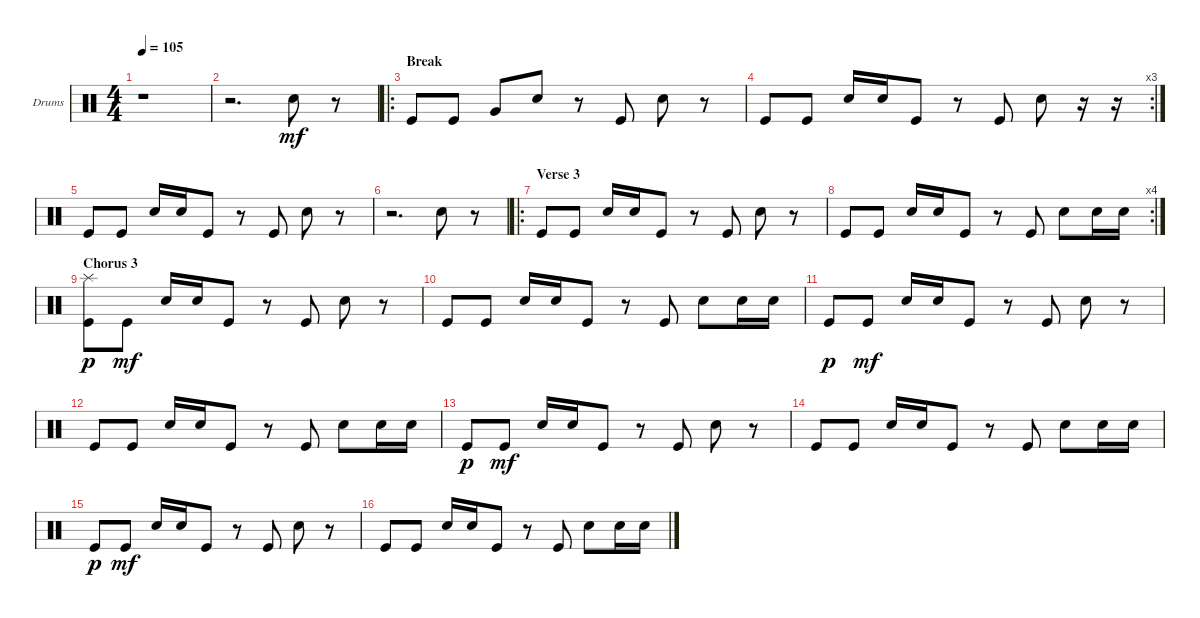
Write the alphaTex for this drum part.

\defaultSystemsLayout 4
\bracketExtendMode groupsimilarinstruments
\firstSystemTrackNameOrientation horizontal
\otherSystemsTrackNameOrientation horizontal
\chordDiagramsInScore
\track ("Drumkit" "Drums") {instrument percussion}
\staff {score}
\articulation defaults
\ts (4 4)
\tempo 105
\clef neutral
\ks c
r.1{dy mf} |
r.2{d} "Snare (hit) 2".8 r.8 |
\ro
\section ("" "Break")
"Kick (hit)".8 "Kick (hit)".8 "Very Low Tom (hit)".8 "Snare (hit) 2".8 r.8 "Kick (hit)".8 "Snare (hit) 2".8 r.8 |
\rc 3 "Kick (hit)".8 "Kick (hit)".8 "Snare (hit) 2".16 "Snare (hit) 2".16 "Kick (hit)".8
r.8 "Kick (hit)".8 "Snare (hit) 2".8 r.16 r.16 |
"Kick (hit)".8 "Kick (hit)".8 "Snare (hit) 2".16 "Snare (hit) 2".16 "Kick (hit)".8 r.8 "Kick (hit)".8 "Snare (hit) 2".8 r.8 |
r.2{d} "Snare (hit) 2".8 r.8 |
\ro
\section ("" "Verse 3")
"Kick (hit)".8 "Kick (hit)".8 "Snare (hit) 2".16 "Snare (hit) 2".16 "Kick (hit)".8 r.8 "Kick (hit)".8 "Snare (hit) 2".8 r.8 |
\rc 4 "Kick (hit)".8 "Kick (hit)".8 "Snare (hit) 2".16 "Snare (hit) 2".16 "Kick (hit)".8
r.8 "Kick (hit)".8 "Snare (hit) 2".8 "Snare (hit) 2".16 "Snare (hit) 2".16 |
\section ("" "Chorus 3")
("Kick (hit)" "Splash (hit)").8{dy p} "Kick (hit)".8{dy mf} "Snare (hit) 2".16 "Snare (hit) 2".16 "Kick (hit)".8 r.8 "Kick (hit)".8 "Snare (hit) 2".8 r.8 |
"Kick (hit)".8 "Kick (hit)".8 "Snare (hit) 2".16 "Snare (hit) 2".16 "Kick (hit)".8 r.8 "Kick (hit)".8 "Snare (hit) 2".8 "Snare (hit) 2".16 "Snare (hit) 2".16 |
"Kick (hit)".8{dy p} "Kick (hit)".8{dy mf} "Snare (hit) 2".16 "Snare (hit) 2".16 "Kick (hit)".8 r.8 "Kick (hit)".8 "Snare (hit) 2".8 r.8 |
"Kick (hit)".8 "Kick (hit)".8 "Snare (hit) 2".16 "Snare (hit) 2".16 "Kick (hit)".8 r.8 "Kick (hit)".8 "Snare (hit) 2".8 "Snare (hit) 2".16 "Snare (hit) 2".16 |
"Kick (hit)".8{dy p} "Kick (hit)".8{dy mf} "Snare (hit) 2".16 "Snare (hit) 2".16 "Kick (hit)".8 r.8 "Kick (hit)".8 "Snare (hit) 2".8 r.8 |
"Kick (hit)".8 "Kick (hit)".8 "Snare (hit) 2".16 "Snare (hit) 2".16 "Kick (hit)".8 r.8 "Kick (hit)".8 "Snare (hit) 2".8 "Snare (hit) 2".16 "Snare (hit) 2".16 |
"Kick (hit)".8{dy p} "Kick (hit)".8{dy mf} "Snare (hit) 2".16 "Snare (hit) 2".16 "Kick (hit)".8 r.8 "Kick (hit)".8 "Snare (hit) 2".8 r.8 |
"Kick (hit)".8 "Kick (hit)".8 "Snare (hit) 2".16 "Snare (hit) 2".16 "Kick (hit)".8 r.8 "Kick (hit)".8 "Snare (hit) 2".8 "Snare (hit) 2".16 "Snare (hit) 2".16
